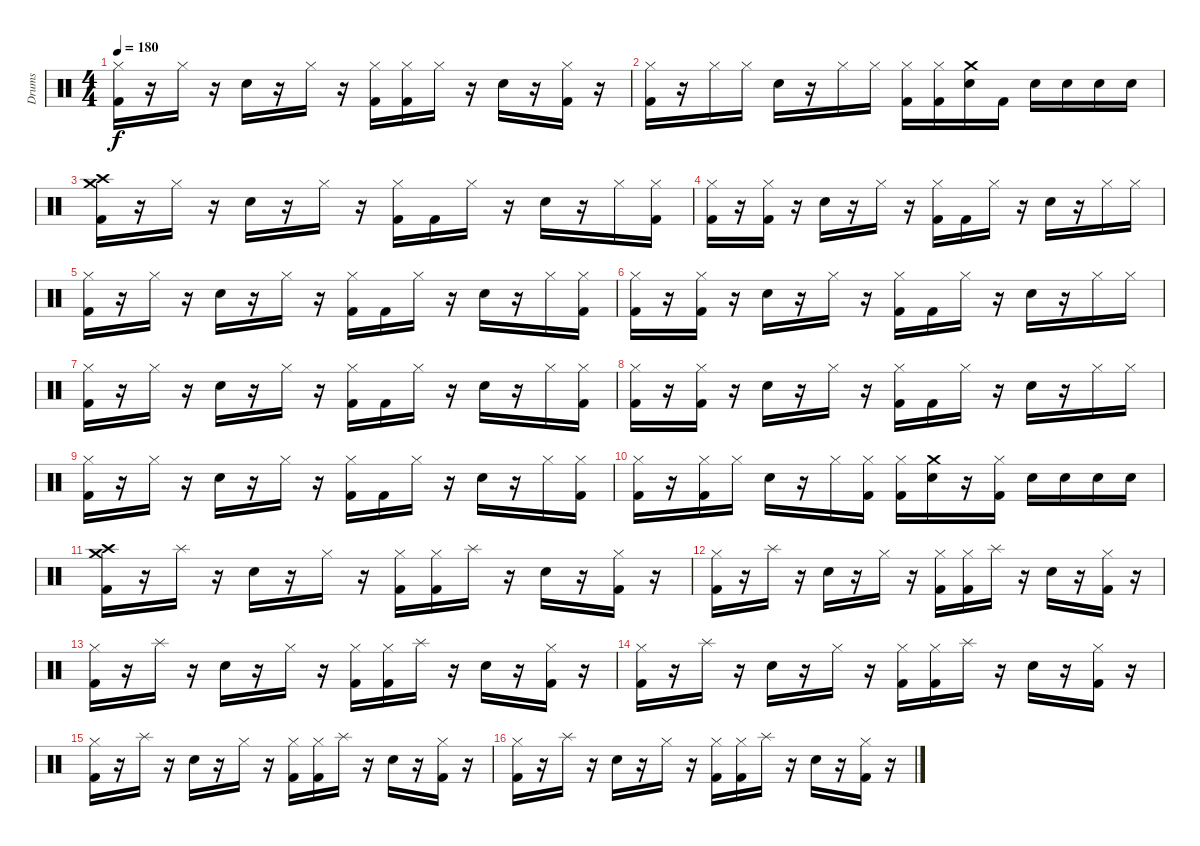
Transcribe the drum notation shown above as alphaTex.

\track ("Drums" "Drums") {instrument percussion}
\staff {score}
\articulation defaults
\ts (4 4)
\tempo 180
\clef neutral
\ks c
("Hi-Hat (closed)" "Kick (hit) 2").16{dy f} r.16 "Hi-Hat (closed)".16 r.16 "Snare (hit) 2".16 r.16 "Hi-Hat (closed)".16 r.16 ("Hi-Hat (closed)" "Kick (hit) 2").16 ("Hi-Hat (closed)" "Kick (hit) 2").16 "Hi-Hat (closed)".16 r.16 "Snare (hit) 2".16 r.16 ("Hi-Hat (closed)" "Kick (hit) 2").16 r.16 |
("Hi-Hat (closed)" "Kick (hit) 2").16 r.16 "Hi-Hat (closed)".16 "Hi-Hat (closed)".16 "Snare (hit) 2".16 r.16 "Hi-Hat (closed)".16 "Hi-Hat (closed)".16 ("Hi-Hat (closed)" "Kick (hit) 2").16 ("Hi-Hat (closed)" "Kick (hit) 2").16 ("Crash medium (hit)" "Snare (hit) 2").16 "Kick (hit) 2".16 "Snare (hit) 2".16 "Snare (hit) 2".16 "Snare (hit) 2".16 "Snare (hit) 2".16 |
("Crash medium (hit)" "Crash high (hit)" "Kick (hit) 2").16 r.16 "Hi-Hat (closed)".16 r.16 "Snare (hit) 2".16 r.16 "Hi-Hat (closed)".16 r.16 ("Hi-Hat (closed)" "Kick (hit) 2").16 "Kick (hit) 2".16 "Hi-Hat (closed)".16 r.16 "Snare (hit) 2".16 r.16 "Hi-Hat (closed)".16 ("Hi-Hat (closed)" "Kick (hit) 2").16 |
("Hi-Hat (closed)" "Kick (hit) 2").16 r.16 ("Hi-Hat (closed)" "Kick (hit) 2").16 r.16 "Snare (hit) 2".16 r.16 "Hi-Hat (closed)".16 r.16 ("Hi-Hat (closed)" "Kick (hit) 2").16 "Kick (hit) 2".16 "Hi-Hat (closed)".16 r.16 "Snare (hit) 2".16 r.16 "Hi-Hat (closed)".16 "Hi-Hat (closed)".16 |
("Hi-Hat (closed)" "Kick (hit) 2").16 r.16 "Hi-Hat (closed)".16 r.16 "Snare (hit) 2".16 r.16 "Hi-Hat (closed)".16 r.16 ("Hi-Hat (closed)" "Kick (hit) 2").16 "Kick (hit) 2".16 "Hi-Hat (closed)".16 r.16 "Snare (hit) 2".16 r.16 "Hi-Hat (closed)".16 ("Hi-Hat (closed)" "Kick (hit) 2").16 |
("Hi-Hat (closed)" "Kick (hit) 2").16 r.16 ("Hi-Hat (closed)" "Kick (hit) 2").16 r.16 "Snare (hit) 2".16 r.16 "Hi-Hat (closed)".16 r.16 ("Hi-Hat (closed)" "Kick (hit) 2").16 "Kick (hit) 2".16 "Hi-Hat (closed)".16 r.16 "Snare (hit) 2".16 r.16 "Hi-Hat (closed)".16 "Hi-Hat (closed)".16 |
("Hi-Hat (closed)" "Kick (hit) 2").16 r.16 "Hi-Hat (closed)".16 r.16 "Snare (hit) 2".16 r.16 "Hi-Hat (closed)".16 r.16 ("Hi-Hat (closed)" "Kick (hit) 2").16 "Kick (hit) 2".16 "Hi-Hat (closed)".16 r.16 "Snare (hit) 2".16 r.16 "Hi-Hat (closed)".16 ("Hi-Hat (closed)" "Kick (hit) 2").16 |
("Hi-Hat (closed)" "Kick (hit) 2").16 r.16 ("Hi-Hat (closed)" "Kick (hit) 2").16 r.16 "Snare (hit) 2".16 r.16 "Hi-Hat (closed)".16 r.16 ("Hi-Hat (closed)" "Kick (hit) 2").16 "Kick (hit) 2".16 "Hi-Hat (closed)".16 r.16 "Snare (hit) 2".16 r.16 "Hi-Hat (closed)".16 "Hi-Hat (closed)".16 |
("Hi-Hat (closed)" "Kick (hit) 2").16 r.16 "Hi-Hat (closed)".16 r.16 "Snare (hit) 2".16 r.16 "Hi-Hat (closed)".16 r.16 ("Hi-Hat (closed)" "Kick (hit) 2").16 "Kick (hit) 2".16 "Hi-Hat (closed)".16 r.16 "Snare (hit) 2".16 r.16 "Hi-Hat (closed)".16 ("Hi-Hat (closed)" "Kick (hit) 2").16 |
("Hi-Hat (closed)" "Kick (hit) 2").16 r.16 ("Hi-Hat (closed)" "Kick (hit) 2").16 "Hi-Hat (closed)".16 "Snare (hit) 2".16 r.16 "Hi-Hat (closed)".16 ("Hi-Hat (closed)" "Kick (hit) 2").16 ("Hi-Hat (closed)" "Kick (hit) 2").16 ("Crash medium (hit)" "Snare (hit) 2").16 r.16 ("Hi-Hat (closed)" "Kick (hit) 2").16 "Snare (hit) 2".16 "Snare (hit) 2".16 "Snare (hit) 2".16 "Snare (hit) 2".16 |
("Crash medium (hit)" "Crash high (hit)" "Kick (hit) 2").16 r.16 "Splash (hit)".16 r.16 "Snare (hit) 2".16 r.16 "Hi-Hat (closed)".16 r.16 ("Hi-Hat (closed)" "Kick (hit) 2").16 ("Hi-Hat (closed)" "Kick (hit) 2").16 "Splash (hit)".16 r.16 "Snare (hit) 2".16 r.16 ("Hi-Hat (closed)" "Kick (hit) 2").16 r.16 |
("Hi-Hat (closed)" "Kick (hit) 2").16 r.16 "Splash (hit)".16 r.16 "Snare (hit) 2".16 r.16 "Hi-Hat (closed)".16 r.16 ("Hi-Hat (closed)" "Kick (hit) 2").16 ("Hi-Hat (closed)" "Kick (hit) 2").16 "Splash (hit)".16 r.16 "Snare (hit) 2".16 r.16 ("Hi-Hat (closed)" "Kick (hit) 2").16 r.16 |
("Hi-Hat (closed)" "Kick (hit) 2").16 r.16 "Splash (hit)".16 r.16 "Snare (hit) 2".16 r.16 "Hi-Hat (closed)".16 r.16 ("Hi-Hat (closed)" "Kick (hit) 2").16 ("Hi-Hat (closed)" "Kick (hit) 2").16 "Splash (hit)".16 r.16 "Snare (hit) 2".16 r.16 ("Hi-Hat (closed)" "Kick (hit) 2").16 r.16 |
("Hi-Hat (closed)" "Kick (hit) 2").16 r.16 "Splash (hit)".16 r.16 "Snare (hit) 2".16 r.16 "Hi-Hat (closed)".16 r.16 ("Hi-Hat (closed)" "Kick (hit) 2").16 ("Hi-Hat (closed)" "Kick (hit) 2").16 "Splash (hit)".16 r.16 "Snare (hit) 2".16 r.16 ("Hi-Hat (closed)" "Kick (hit) 2").16 r.16 |
("Hi-Hat (closed)" "Kick (hit) 2").16 r.16 "Splash (hit)".16 r.16 "Snare (hit) 2".16 r.16 "Hi-Hat (closed)".16 r.16 ("Hi-Hat (closed)" "Kick (hit) 2").16 ("Hi-Hat (closed)" "Kick (hit) 2").16 "Splash (hit)".16 r.16 "Snare (hit) 2".16 r.16 ("Hi-Hat (closed)" "Kick (hit) 2").16 r.16 |
("Hi-Hat (closed)" "Kick (hit) 2").16 r.16 "Splash (hit)".16 r.16 "Snare (hit) 2".16 r.16 "Hi-Hat (closed)".16 r.16 ("Hi-Hat (closed)" "Kick (hit) 2").16 ("Hi-Hat (closed)" "Kick (hit) 2").16 "Splash (hit)".16 r.16 "Snare (hit) 2".16 r.16 ("Hi-Hat (closed)" "Kick (hit) 2").16 r.16
